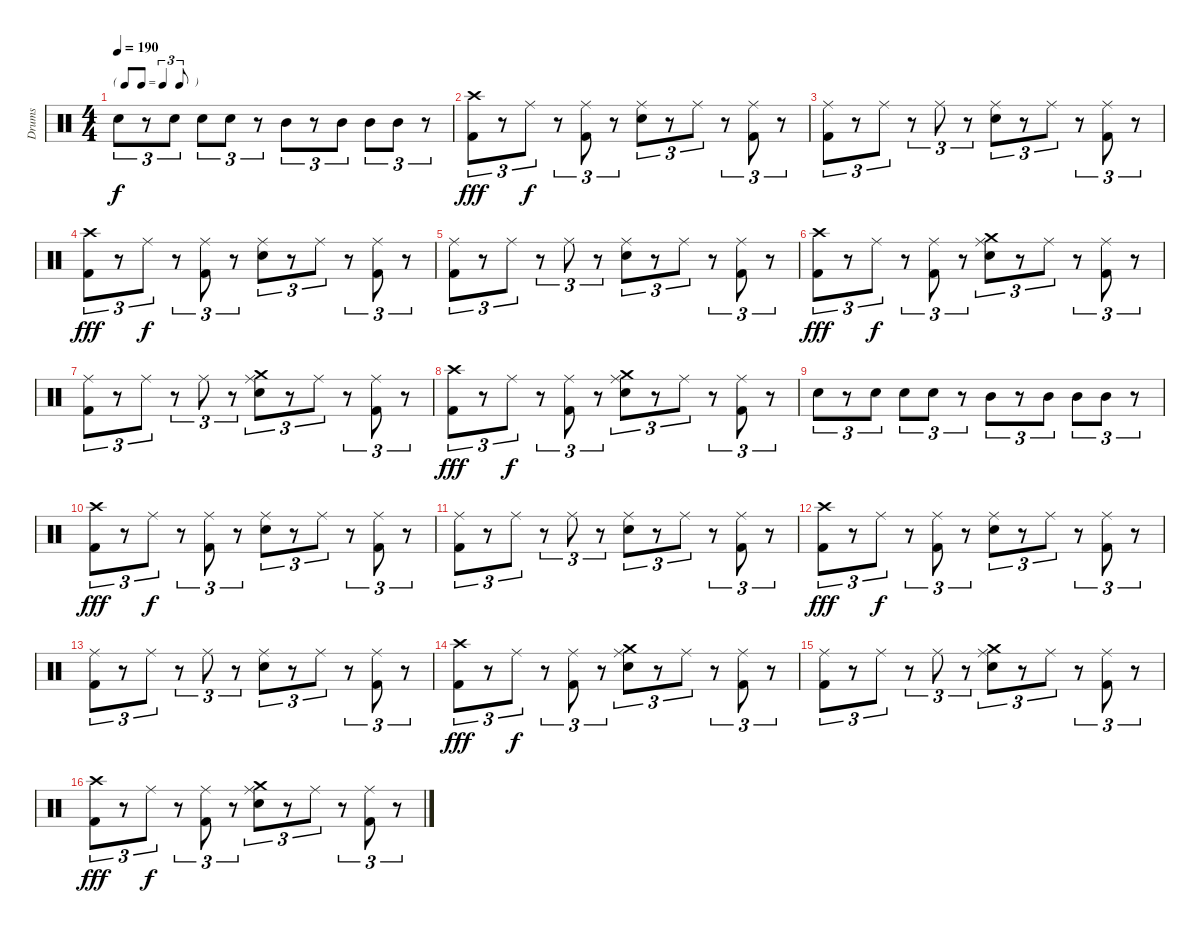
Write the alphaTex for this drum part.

\track ("Drums" "Drums") {instrument percussion}
\staff {score}
\articulation defaults
\ts (4 4)
\tf triplet8th
\tempo 190
\clef neutral
\ks c "Electric Snare (hit)".8{tu (3 2) dy f}
r.8{tu (3 2)} "Electric Snare (hit)".8{tu (3 2)} "Electric Snare (hit)".8{tu (3 2)} "Electric Snare (hit)".8{tu (3 2)} r.8{tu (3 2)} "Mid Tom (hit)".8{tu (3 2)} r.8{tu (3 2)} "Mid Tom (hit)".8{tu (3 2)} "Mid Tom (hit)".8{tu (3 2)} "Mid Tom (hit)".8{tu (3 2)} r.8{tu (3 2)} |
("Crash high (hit)" "Kick (hit) 2").8{tu (3 2) dy fff} r.8{tu (3 2)} "Ride (middle)".8{tu (3 2) dy f} r.8{tu (3 2)} ("Ride (middle)" "Kick (hit) 2").8{tu (3 2)} r.8{tu (3 2)} ("Ride (middle)" "Electric Snare (hit)").8{tu (3 2)} r.8{tu (3 2)} "Ride (middle)".8{tu (3 2)} r.8{tu (3 2)} ("Ride (middle)" "Kick (hit) 2").8{tu (3 2)} r.8{tu (3 2)} |
("Ride (middle)" "Kick (hit) 2").8{tu (3 2)} r.8{tu (3 2)} "Ride (middle)".8{tu (3 2)} r.8{tu (3 2)} "Ride (middle)".8{tu (3 2)} r.8{tu (3 2)} ("Ride (middle)" "Electric Snare (hit)").8{tu (3 2)} r.8{tu (3 2)} "Ride (middle)".8{tu (3 2)} r.8{tu (3 2)} ("Ride (middle)" "Kick (hit) 2").8{tu (3 2)} r.8{tu (3 2)} |
("Crash high (hit)" "Kick (hit) 2").8{tu (3 2) dy fff} r.8{tu (3 2)} "Ride (middle)".8{tu (3 2) dy f} r.8{tu (3 2)} ("Ride (middle)" "Kick (hit) 2").8{tu (3 2)} r.8{tu (3 2)} ("Ride (middle)" "Electric Snare (hit)").8{tu (3 2)} r.8{tu (3 2)} "Ride (middle)".8{tu (3 2)} r.8{tu (3 2)} ("Ride (middle)" "Kick (hit) 2").8{tu (3 2)} r.8{tu (3 2)} |
("Ride (middle)" "Kick (hit) 2").8{tu (3 2)} r.8{tu (3 2)} "Ride (middle)".8{tu (3 2)} r.8{tu (3 2)} "Ride (middle)".8{tu (3 2)} r.8{tu (3 2)} ("Ride (middle)" "Electric Snare (hit)").8{tu (3 2)} r.8{tu (3 2)} "Ride (middle)".8{tu (3 2)} r.8{tu (3 2)} ("Ride (middle)" "Kick (hit) 2").8{tu (3 2)} r.8{tu (3 2)} |
("Crash high (hit)" "Kick (hit) 2").8{tu (3 2) dy fff} r.8{tu (3 2)} "Ride (middle)".8{tu (3 2) dy f} r.8{tu (3 2)} ("Ride (middle)" "Kick (hit) 2").8{tu (3 2)} r.8{tu (3 2)} ("Crash medium (hit)" "Ride (middle)" "Electric Snare (hit)").8{tu (3 2)} r.8{tu (3 2)} "Ride (middle)".8{tu (3 2)} r.8{tu (3 2)} ("Ride (middle)" "Kick (hit) 2").8{tu (3 2)} r.8{tu (3 2)} |
("Ride (middle)" "Kick (hit) 2").8{tu (3 2)} r.8{tu (3 2)} "Ride (middle)".8{tu (3 2)} r.8{tu (3 2)} "Ride (middle)".8{tu (3 2)} r.8{tu (3 2)} ("Crash medium (hit)" "Ride (middle)" "Electric Snare (hit)").8{tu (3 2)} r.8{tu (3 2)} "Ride (middle)".8{tu (3 2)} r.8{tu (3 2)} ("Ride (middle)" "Kick (hit) 2").8{tu (3 2)} r.8{tu (3 2)} |
("Crash high (hit)" "Kick (hit) 2").8{tu (3 2) dy fff} r.8{tu (3 2)} "Ride (middle)".8{tu (3 2) dy f} r.8{tu (3 2)} ("Ride (middle)" "Kick (hit) 2").8{tu (3 2)} r.8{tu (3 2)} ("Crash medium (hit)" "Ride (middle)" "Electric Snare (hit)").8{tu (3 2)} r.8{tu (3 2)} "Ride (middle)".8{tu (3 2)} r.8{tu (3 2)} ("Ride (middle)" "Kick (hit) 2").8{tu (3 2)} r.8{tu (3 2)} |
"Electric Snare (hit)".8{tu (3 2)} r.8{tu (3 2)} "Electric Snare (hit)".8{tu (3 2)} "Electric Snare (hit)".8{tu (3 2)} "Electric Snare (hit)".8{tu (3 2)} r.8{tu (3 2)} "Mid Tom (hit)".8{tu (3 2)} r.8{tu (3 2)} "Mid Tom (hit)".8{tu (3 2)} "Mid Tom (hit)".8{tu (3 2)} "Mid Tom (hit)".8{tu (3 2)} r.8{tu (3 2)} |
("Crash high (hit)" "Kick (hit) 2").8{tu (3 2) dy fff} r.8{tu (3 2)} "Ride (middle)".8{tu (3 2) dy f} r.8{tu (3 2)} ("Ride (middle)" "Kick (hit) 2").8{tu (3 2)} r.8{tu (3 2)} ("Ride (middle)" "Electric Snare (hit)").8{tu (3 2)} r.8{tu (3 2)} "Ride (middle)".8{tu (3 2)} r.8{tu (3 2)} ("Ride (middle)" "Kick (hit) 2").8{tu (3 2)} r.8{tu (3 2)} |
("Ride (middle)" "Kick (hit) 2").8{tu (3 2)} r.8{tu (3 2)} "Ride (middle)".8{tu (3 2)} r.8{tu (3 2)} "Ride (middle)".8{tu (3 2)} r.8{tu (3 2)} ("Ride (middle)" "Electric Snare (hit)").8{tu (3 2)} r.8{tu (3 2)} "Ride (middle)".8{tu (3 2)} r.8{tu (3 2)} ("Ride (middle)" "Kick (hit) 2").8{tu (3 2)} r.8{tu (3 2)} |
("Crash high (hit)" "Kick (hit) 2").8{tu (3 2) dy fff} r.8{tu (3 2)} "Ride (middle)".8{tu (3 2) dy f} r.8{tu (3 2)} ("Ride (middle)" "Kick (hit) 2").8{tu (3 2)} r.8{tu (3 2)} ("Ride (middle)" "Electric Snare (hit)").8{tu (3 2)} r.8{tu (3 2)} "Ride (middle)".8{tu (3 2)} r.8{tu (3 2)} ("Ride (middle)" "Kick (hit) 2").8{tu (3 2)} r.8{tu (3 2)} |
("Ride (middle)" "Kick (hit) 2").8{tu (3 2)} r.8{tu (3 2)} "Ride (middle)".8{tu (3 2)} r.8{tu (3 2)} "Ride (middle)".8{tu (3 2)} r.8{tu (3 2)} ("Ride (middle)" "Electric Snare (hit)").8{tu (3 2)} r.8{tu (3 2)} "Ride (middle)".8{tu (3 2)} r.8{tu (3 2)} ("Ride (middle)" "Kick (hit) 2").8{tu (3 2)} r.8{tu (3 2)} |
("Crash high (hit)" "Kick (hit) 2").8{tu (3 2) dy fff} r.8{tu (3 2)} "Ride (middle)".8{tu (3 2) dy f} r.8{tu (3 2)} ("Ride (middle)" "Kick (hit) 2").8{tu (3 2)} r.8{tu (3 2)} ("Crash medium (hit)" "Ride (middle)" "Electric Snare (hit)").8{tu (3 2)} r.8{tu (3 2)} "Ride (middle)".8{tu (3 2)} r.8{tu (3 2)} ("Ride (middle)" "Kick (hit) 2").8{tu (3 2)} r.8{tu (3 2)} |
("Ride (middle)" "Kick (hit) 2").8{tu (3 2)} r.8{tu (3 2)} "Ride (middle)".8{tu (3 2)} r.8{tu (3 2)} "Ride (middle)".8{tu (3 2)} r.8{tu (3 2)} ("Crash medium (hit)" "Ride (middle)" "Electric Snare (hit)").8{tu (3 2)} r.8{tu (3 2)} "Ride (middle)".8{tu (3 2)} r.8{tu (3 2)} ("Ride (middle)" "Kick (hit) 2").8{tu (3 2)} r.8{tu (3 2)} |
("Crash high (hit)" "Kick (hit) 2").8{tu (3 2) dy fff} r.8{tu (3 2)} "Ride (middle)".8{tu (3 2) dy f} r.8{tu (3 2)} ("Ride (middle)" "Kick (hit) 2").8{tu (3 2)} r.8{tu (3 2)} ("Crash medium (hit)" "Ride (middle)" "Electric Snare (hit)").8{tu (3 2)} r.8{tu (3 2)} "Ride (middle)".8{tu (3 2)} r.8{tu (3 2)} ("Ride (middle)" "Kick (hit) 2").8{tu (3 2)} r.8{tu (3 2)}
